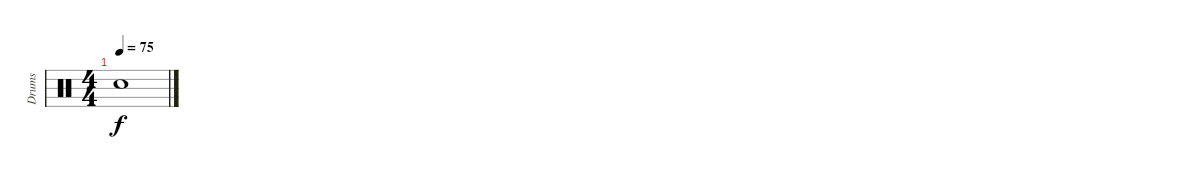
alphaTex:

\track ("Drums" "Drums") {instrument percussion}
\staff {score}
\articulation defaults
\ts (4 4)
\tempo 75
\clef neutral
\ks c "Snare (hit)"{t}.1{dy f}
